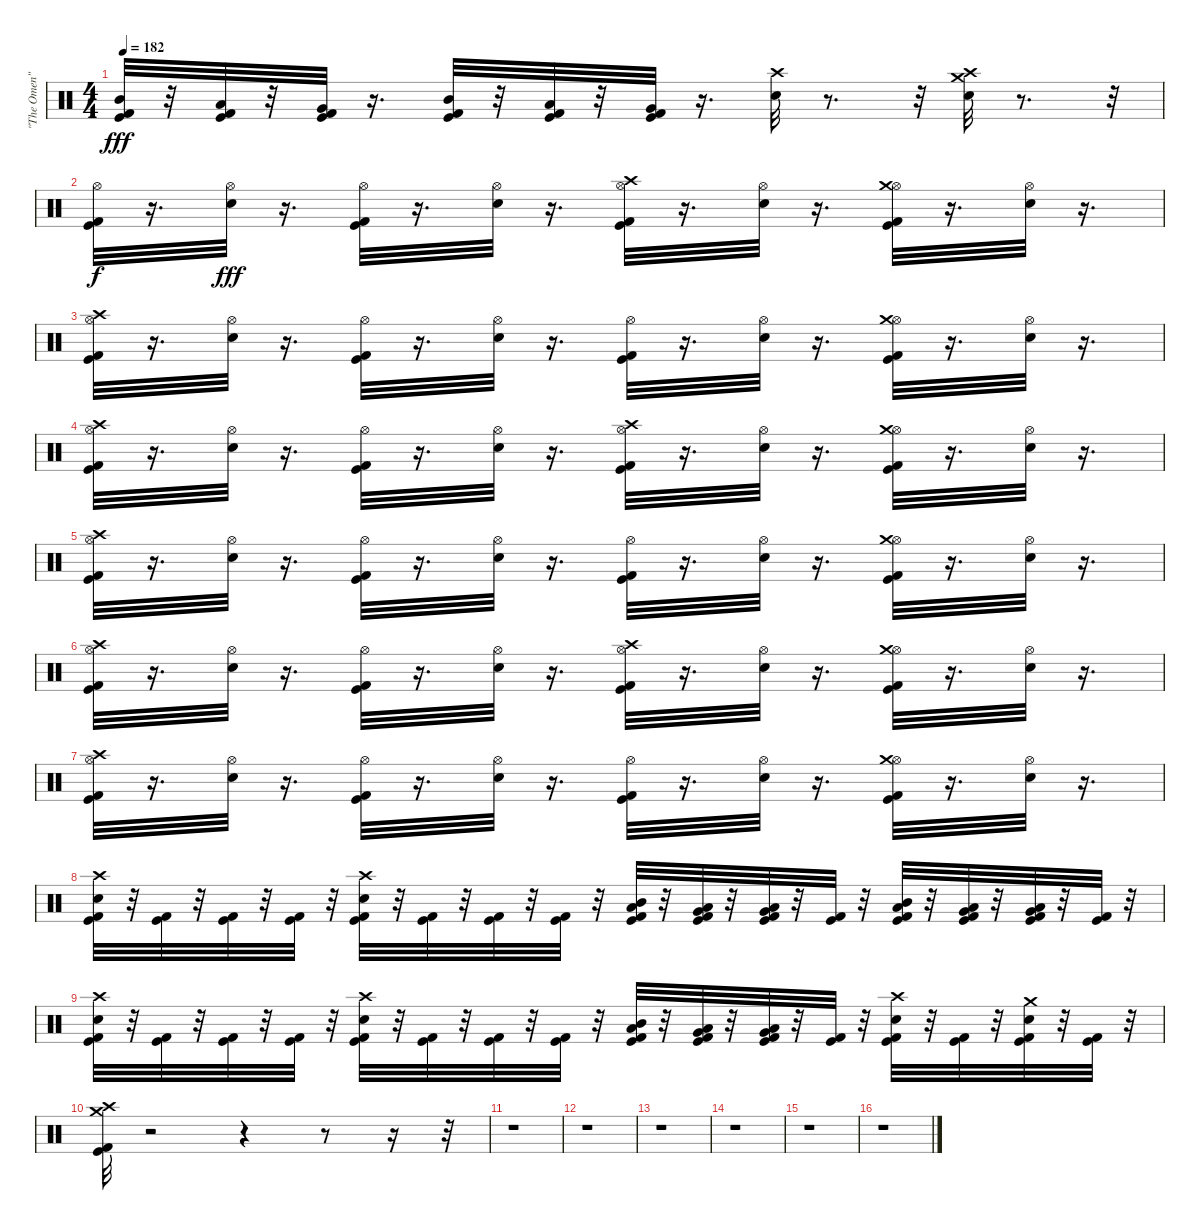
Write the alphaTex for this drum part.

\track ("\"The Omen\"" "\"The Omen\"") {instrument percussion}
\staff {score}
\articulation defaults
\ts (4 4)
\tempo 182
\clef neutral
\ks c
("Kick (hit)" "Kick (hit) 2" "Mid Tom (hit)").32{dy fff} r.32 ("Kick (hit)" "Kick (hit) 2" "Low Tom (hit)").32 r.32 ("Kick (hit)" "Kick (hit) 2" "Very Low Tom (hit)").32 r.16{d} ("Kick (hit)" "Kick (hit) 2" "Mid Tom (hit)").32 r.32 ("Kick (hit)" "Kick (hit) 2" "Low Tom (hit)").32 r.32 ("Kick (hit)" "Kick (hit) 2" "Very Low Tom (hit)").32 r.16{d} ("Snare (hit) 2" "Crash high (hit)").32 r.8{d} r.32 ("Snare (hit) 2" "Crash high (hit)" "Crash medium (hit)").32 r.8{d} r.32 |
("Kick (hit)" "Kick (hit) 2" "Hi-Hat (open)").32{dy f} r.16{d} ("Snare (hit) 2" "Hi-Hat (open)").32{dy fff} r.16{d} ("Kick (hit)" "Kick (hit) 2" "Hi-Hat (open)").32 r.16{d} ("Snare (hit) 2" "Hi-Hat (open)").32 r.16{d} ("Kick (hit)" "Kick (hit) 2" "Hi-Hat (open)" "Crash high (hit)").32 r.16{d} ("Snare (hit) 2" "Hi-Hat (open)").32 r.16{d} ("Kick (hit)" "Kick (hit) 2" "Hi-Hat (open)" "Crash medium (hit)").32 r.16{d} ("Snare (hit) 2" "Hi-Hat (open)").32 r.16{d} |
("Kick (hit)" "Kick (hit) 2" "Hi-Hat (open)" "Crash high (hit)").32 r.16{d} ("Snare (hit) 2" "Hi-Hat (open)").32 r.16{d} ("Kick (hit)" "Kick (hit) 2" "Hi-Hat (open)").32 r.16{d} ("Snare (hit) 2" "Hi-Hat (open)").32 r.16{d} ("Kick (hit)" "Kick (hit) 2" "Hi-Hat (open)").32 r.16{d} ("Snare (hit) 2" "Hi-Hat (open)").32 r.16{d} ("Kick (hit)" "Kick (hit) 2" "Hi-Hat (open)" "Crash medium (hit)").32 r.16{d} ("Snare (hit) 2" "Hi-Hat (open)").32 r.16{d} |
("Kick (hit)" "Kick (hit) 2" "Hi-Hat (open)" "Crash high (hit)").32 r.16{d} ("Snare (hit) 2" "Hi-Hat (open)").32 r.16{d} ("Kick (hit)" "Kick (hit) 2" "Hi-Hat (open)").32 r.16{d} ("Snare (hit) 2" "Hi-Hat (open)").32 r.16{d} ("Kick (hit)" "Kick (hit) 2" "Hi-Hat (open)" "Crash high (hit)").32 r.16{d} ("Snare (hit) 2" "Hi-Hat (open)").32 r.16{d} ("Kick (hit)" "Kick (hit) 2" "Hi-Hat (open)" "Crash medium (hit)").32 r.16{d} ("Snare (hit) 2" "Hi-Hat (open)").32 r.16{d} |
("Kick (hit)" "Kick (hit) 2" "Hi-Hat (open)" "Crash high (hit)").32 r.16{d} ("Snare (hit) 2" "Hi-Hat (open)").32 r.16{d} ("Kick (hit)" "Kick (hit) 2" "Hi-Hat (open)").32 r.16{d} ("Snare (hit) 2" "Hi-Hat (open)").32 r.16{d} ("Kick (hit)" "Kick (hit) 2" "Hi-Hat (open)").32 r.16{d} ("Snare (hit) 2" "Hi-Hat (open)").32 r.16{d} ("Kick (hit)" "Kick (hit) 2" "Hi-Hat (open)" "Crash medium (hit)").32 r.16{d} ("Snare (hit) 2" "Hi-Hat (open)").32 r.16{d} |
("Kick (hit)" "Kick (hit) 2" "Hi-Hat (open)" "Crash high (hit)").32 r.16{d} ("Snare (hit) 2" "Hi-Hat (open)").32 r.16{d} ("Kick (hit)" "Kick (hit) 2" "Hi-Hat (open)").32 r.16{d} ("Snare (hit) 2" "Hi-Hat (open)").32 r.16{d} ("Kick (hit)" "Kick (hit) 2" "Hi-Hat (open)" "Crash high (hit)").32 r.16{d} ("Snare (hit) 2" "Hi-Hat (open)").32 r.16{d} ("Kick (hit)" "Kick (hit) 2" "Hi-Hat (open)" "Crash medium (hit)").32 r.16{d} ("Snare (hit) 2" "Hi-Hat (open)").32 r.16{d} |
("Kick (hit)" "Kick (hit) 2" "Hi-Hat (open)" "Crash high (hit)").32 r.16{d} ("Snare (hit) 2" "Hi-Hat (open)").32 r.16{d} ("Kick (hit)" "Kick (hit) 2" "Hi-Hat (open)").32 r.16{d} ("Snare (hit) 2" "Hi-Hat (open)").32 r.16{d} ("Kick (hit)" "Kick (hit) 2" "Hi-Hat (open)").32 r.16{d} ("Snare (hit) 2" "Hi-Hat (open)").32 r.16{d} ("Kick (hit)" "Kick (hit) 2" "Hi-Hat (open)" "Crash medium (hit)").32 r.16{d} ("Snare (hit) 2" "Hi-Hat (open)").32 r.16{d} |
("Kick (hit)" "Kick (hit) 2" "Snare (hit) 2" "Crash high (hit)").32 r.32 ("Kick (hit)" "Kick (hit) 2").32 r.32 ("Kick (hit)" "Kick (hit) 2").32 r.32 ("Kick (hit)" "Kick (hit) 2").32 r.32 ("Kick (hit)" "Kick (hit) 2" "Snare (hit) 2" "Crash high (hit)").32 r.32 ("Kick (hit)" "Kick (hit) 2").32 r.32 ("Kick (hit)" "Kick (hit) 2").32 r.32 ("Kick (hit)" "Kick (hit) 2").32 r.32 ("Kick (hit)" "Kick (hit) 2" "Low Tom (hit)" "Mid Tom (hit)").32 r.32 ("Kick (hit)" "Kick (hit) 2" "Very Low Tom (hit)" "Low Tom (hit)").32 r.32 ("Kick (hit)" "Kick (hit) 2" "Low Floor Tom (hit)" "Very Low Tom (hit)").32 r.32 ("Kick (hit)" "Kick (hit) 2").32 r.32 ("Kick (hit)" "Kick (hit) 2" "Low Tom (hit)" "Mid Tom (hit)").32 r.32 ("Kick (hit)" "Kick (hit) 2" "Very Low Tom (hit)" "Low Tom (hit)").32 r.32 ("Kick (hit)" "Kick (hit) 2" "Low Floor Tom (hit)" "Very Low Tom (hit)").32 r.32 ("Kick (hit)" "Kick (hit) 2").32 r.32 |
("Kick (hit)" "Kick (hit) 2" "Snare (hit) 2" "Crash high (hit)").32 r.32 ("Kick (hit)" "Kick (hit) 2").32 r.32 ("Kick (hit)" "Kick (hit) 2").32 r.32 ("Kick (hit)" "Kick (hit) 2").32 r.32 ("Kick (hit)" "Kick (hit) 2" "Snare (hit) 2" "Crash high (hit)").32 r.32 ("Kick (hit)" "Kick (hit) 2").32 r.32 ("Kick (hit)" "Kick (hit) 2").32 r.32 ("Kick (hit)" "Kick (hit) 2").32 r.32 ("Kick (hit)" "Kick (hit) 2" "Low Tom (hit)" "Mid Tom (hit)").32 r.32 ("Kick (hit)" "Kick (hit) 2" "Very Low Tom (hit)" "Low Tom (hit)").32 r.32 ("Kick (hit)" "Kick (hit) 2" "Low Floor Tom (hit)" "Very Low Tom (hit)").32 r.32 ("Kick (hit)" "Kick (hit) 2").32 r.32 ("Kick (hit)" "Kick (hit) 2" "Snare (hit) 2" "Crash high (hit)").32 r.32 ("Kick (hit)" "Kick (hit) 2").32 r.32 ("Kick (hit)" "Kick (hit) 2" "Snare (hit) 2" "Crash medium (hit)").32 r.32 ("Kick (hit)" "Kick (hit) 2").32 r.32 |
("Kick (hit)" "Kick (hit) 2" "Crash high (hit)" "Crash medium (hit)").32 r.2 r.4 r.8 r.16 r.32 |
r.1 |
r.1 |
r.1 |
r.1 |
r.1 |
r.1
